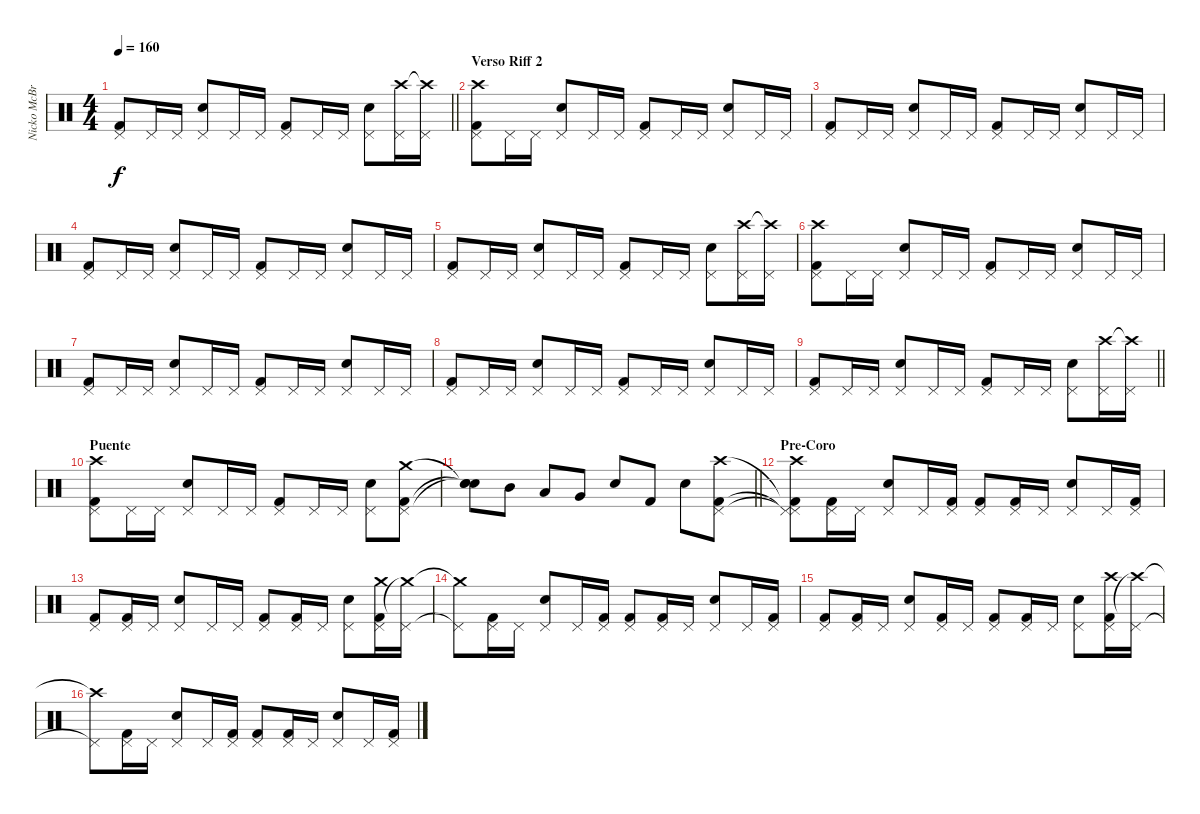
\track ("Nicko McBrain" "Nicko McBr") {instrument percussion}
\staff {score}
\articulation defaults
\ts (4 4)
\tempo 160
\clef neutral
\barLineRight lightlight
\ks c
("Kick (hit) 2" "Pedal Hi-Hat (hit)").8{dy f} "Pedal Hi-Hat (hit)".16 "Pedal Hi-Hat (hit)".16 ("Snare (hit) 2" "Pedal Hi-Hat (hit)").8 "Pedal Hi-Hat (hit)".16 "Pedal Hi-Hat (hit)".16 ("Kick (hit) 2" "Pedal Hi-Hat (hit)").8 "Pedal Hi-Hat (hit)".16 "Pedal Hi-Hat (hit)".16 ("Snare (hit) 2" "Pedal Hi-Hat (hit)").8 ("Pedal Hi-Hat (hit)" "Crash high (hit)").16 ("Pedal Hi-Hat (hit)" "Crash high (hit)"{t}).16 |
\section ("" "Verso Riff 2")
("Kick (hit) 2" "Pedal Hi-Hat (hit)" "Crash high (hit)").8 "Pedal Hi-Hat (hit)".16 "Pedal Hi-Hat (hit)".16 ("Snare (hit) 2" "Pedal Hi-Hat (hit)").8 "Pedal Hi-Hat (hit)".16 "Pedal Hi-Hat (hit)".16 ("Kick (hit) 2" "Pedal Hi-Hat (hit)").8 "Pedal Hi-Hat (hit)".16 "Pedal Hi-Hat (hit)".16 ("Snare (hit) 2" "Pedal Hi-Hat (hit)").8 "Pedal Hi-Hat (hit)".16 "Pedal Hi-Hat (hit)".16 |
("Kick (hit) 2" "Pedal Hi-Hat (hit)").8 "Pedal Hi-Hat (hit)".16 "Pedal Hi-Hat (hit)".16 ("Snare (hit) 2" "Pedal Hi-Hat (hit)").8 "Pedal Hi-Hat (hit)".16 "Pedal Hi-Hat (hit)".16 ("Kick (hit) 2" "Pedal Hi-Hat (hit)").8 "Pedal Hi-Hat (hit)".16 "Pedal Hi-Hat (hit)".16 ("Snare (hit) 2" "Pedal Hi-Hat (hit)").8 "Pedal Hi-Hat (hit)".16 "Pedal Hi-Hat (hit)".16 |
("Kick (hit) 2" "Pedal Hi-Hat (hit)").8 "Pedal Hi-Hat (hit)".16 "Pedal Hi-Hat (hit)".16 ("Snare (hit) 2" "Pedal Hi-Hat (hit)").8 "Pedal Hi-Hat (hit)".16 "Pedal Hi-Hat (hit)".16 ("Kick (hit) 2" "Pedal Hi-Hat (hit)").8 "Pedal Hi-Hat (hit)".16 "Pedal Hi-Hat (hit)".16 ("Snare (hit) 2" "Pedal Hi-Hat (hit)").8 "Pedal Hi-Hat (hit)".16 "Pedal Hi-Hat (hit)".16 |
("Kick (hit) 2" "Pedal Hi-Hat (hit)").8 "Pedal Hi-Hat (hit)".16 "Pedal Hi-Hat (hit)".16 ("Snare (hit) 2" "Pedal Hi-Hat (hit)").8 "Pedal Hi-Hat (hit)".16 "Pedal Hi-Hat (hit)".16 ("Kick (hit) 2" "Pedal Hi-Hat (hit)").8 "Pedal Hi-Hat (hit)".16 "Pedal Hi-Hat (hit)".16 ("Snare (hit) 2" "Pedal Hi-Hat (hit)").8 ("Pedal Hi-Hat (hit)" "Crash high (hit)").16 ("Pedal Hi-Hat (hit)" "Crash high (hit)"{t}).16 |
("Kick (hit) 2" "Pedal Hi-Hat (hit)" "Crash high (hit)").8 "Pedal Hi-Hat (hit)".16 "Pedal Hi-Hat (hit)".16 ("Snare (hit) 2" "Pedal Hi-Hat (hit)").8 "Pedal Hi-Hat (hit)".16 "Pedal Hi-Hat (hit)".16 ("Kick (hit) 2" "Pedal Hi-Hat (hit)").8 "Pedal Hi-Hat (hit)".16 "Pedal Hi-Hat (hit)".16 ("Snare (hit) 2" "Pedal Hi-Hat (hit)").8 "Pedal Hi-Hat (hit)".16 "Pedal Hi-Hat (hit)".16 |
("Kick (hit) 2" "Pedal Hi-Hat (hit)").8 "Pedal Hi-Hat (hit)".16 "Pedal Hi-Hat (hit)".16 ("Snare (hit) 2" "Pedal Hi-Hat (hit)").8 "Pedal Hi-Hat (hit)".16 "Pedal Hi-Hat (hit)".16 ("Kick (hit) 2" "Pedal Hi-Hat (hit)").8 "Pedal Hi-Hat (hit)".16 "Pedal Hi-Hat (hit)".16 ("Snare (hit) 2" "Pedal Hi-Hat (hit)").8 "Pedal Hi-Hat (hit)".16 "Pedal Hi-Hat (hit)".16 |
("Kick (hit) 2" "Pedal Hi-Hat (hit)").8 "Pedal Hi-Hat (hit)".16 "Pedal Hi-Hat (hit)".16 ("Snare (hit) 2" "Pedal Hi-Hat (hit)").8 "Pedal Hi-Hat (hit)".16 "Pedal Hi-Hat (hit)".16 ("Kick (hit) 2" "Pedal Hi-Hat (hit)").8 "Pedal Hi-Hat (hit)".16 "Pedal Hi-Hat (hit)".16 ("Snare (hit) 2" "Pedal Hi-Hat (hit)").8 "Pedal Hi-Hat (hit)".16 "Pedal Hi-Hat (hit)".16 |
\barLineRight lightlight
("Kick (hit) 2" "Pedal Hi-Hat (hit)").8 "Pedal Hi-Hat (hit)".16 "Pedal Hi-Hat (hit)".16 ("Snare (hit) 2" "Pedal Hi-Hat (hit)").8 "Pedal Hi-Hat (hit)".16 "Pedal Hi-Hat (hit)".16 ("Kick (hit) 2" "Pedal Hi-Hat (hit)").8 "Pedal Hi-Hat (hit)".16 "Pedal Hi-Hat (hit)".16 ("Snare (hit) 2" "Pedal Hi-Hat (hit)").8 ("Pedal Hi-Hat (hit)" "Crash high (hit)").16 ("Pedal Hi-Hat (hit)" "Crash high (hit)"{t}).16 |
\section ("" "Puente")
("Kick (hit) 2" "Pedal Hi-Hat (hit)" "Crash high (hit)").8 "Pedal Hi-Hat (hit)".16 "Pedal Hi-Hat (hit)".16 ("Snare (hit) 2" "Pedal Hi-Hat (hit)").8 "Pedal Hi-Hat (hit)".16 "Pedal Hi-Hat (hit)".16 ("Kick (hit) 2" "Pedal Hi-Hat (hit)").8 "Pedal Hi-Hat (hit)".16 "Pedal Hi-Hat (hit)".16 ("Snare (hit) 2" "Pedal Hi-Hat (hit)").8 ("Kick (hit) 2" "Pedal Hi-Hat (hit)" "Crash medium (hit)").8 |
\barLineRight lightlight
("Snare (hit)"{t} "Snare (hit)"{t} "Snare (hit)"{t}).8 "Mid Tom (hit)".8 "Low Tom (hit)".8 "Very Low Tom (hit)".8 "Snare (hit) 2".8 "Kick (hit) 2".8 "Snare (hit) 2".8 ("Pedal Hi-Hat (hit)" "Kick (hit) 2" "Crash high (hit)").8 |
\section ("" "Pre-Coro")
("Pedal Hi-Hat (hit)"{t} "Pedal Hi-Hat (hit)"{t} "Kick (hit) 2"{t} "Crash high (hit)").8 ("Pedal Hi-Hat (hit)" "Kick (hit) 2").16 "Pedal Hi-Hat (hit)".16 ("Pedal Hi-Hat (hit)" "Snare (hit) 2").8 "Pedal Hi-Hat (hit)".16 ("Pedal Hi-Hat (hit)" "Kick (hit) 2").16 ("Pedal Hi-Hat (hit)" "Kick (hit) 2").8 ("Pedal Hi-Hat (hit)" "Kick (hit) 2").16 "Pedal Hi-Hat (hit)".16 ("Pedal Hi-Hat (hit)" "Snare (hit) 2").8 "Pedal Hi-Hat (hit)".16 ("Pedal Hi-Hat (hit)" "Kick (hit) 2").16 |
("Pedal Hi-Hat (hit)" "Kick (hit) 2").8 ("Pedal Hi-Hat (hit)" "Kick (hit) 2").16 "Pedal Hi-Hat (hit)".16 ("Pedal Hi-Hat (hit)" "Snare (hit) 2").8 "Pedal Hi-Hat (hit)".16 "Pedal Hi-Hat (hit)".16 ("Pedal Hi-Hat (hit)" "Kick (hit) 2").8 ("Pedal Hi-Hat (hit)" "Kick (hit) 2").16 "Pedal Hi-Hat (hit)".16 ("Pedal Hi-Hat (hit)" "Snare (hit) 2").8 ("Pedal Hi-Hat (hit)" "Kick (hit) 2" "Crash medium (hit)").16 ("Pedal Hi-Hat (hit)" "Crash medium (hit)"{t}).16 |
("Pedal Hi-Hat (hit)"{t} "Crash medium (hit)"{t}).8 ("Pedal Hi-Hat (hit)" "Kick (hit) 2").16 "Pedal Hi-Hat (hit)".16 ("Pedal Hi-Hat (hit)" "Snare (hit) 2").8 "Pedal Hi-Hat (hit)".16 ("Pedal Hi-Hat (hit)" "Kick (hit) 2").16 ("Pedal Hi-Hat (hit)" "Kick (hit) 2").8 ("Pedal Hi-Hat (hit)" "Kick (hit) 2").16 "Pedal Hi-Hat (hit)".16 ("Pedal Hi-Hat (hit)" "Snare (hit) 2").8 "Pedal Hi-Hat (hit)".16 ("Pedal Hi-Hat (hit)" "Kick (hit) 2").16 |
("Pedal Hi-Hat (hit)" "Kick (hit) 2").8 ("Pedal Hi-Hat (hit)" "Kick (hit) 2").16 "Pedal Hi-Hat (hit)".16 ("Pedal Hi-Hat (hit)" "Snare (hit) 2").8 ("Pedal Hi-Hat (hit)" "Kick (hit) 2").16 "Pedal Hi-Hat (hit)".16 ("Pedal Hi-Hat (hit)" "Kick (hit) 2").8 ("Pedal Hi-Hat (hit)" "Kick (hit) 2").16 "Pedal Hi-Hat (hit)".16 ("Pedal Hi-Hat (hit)" "Snare (hit) 2").8 ("Pedal Hi-Hat (hit)" "Kick (hit) 2" "Crash high (hit)").16 ("Pedal Hi-Hat (hit)" "Crash high (hit)"{t}).16 |
("Pedal Hi-Hat (hit)"{t} "Crash high (hit)"{t}).8 ("Pedal Hi-Hat (hit)" "Kick (hit) 2").16 "Pedal Hi-Hat (hit)".16 ("Pedal Hi-Hat (hit)" "Snare (hit) 2").8 "Pedal Hi-Hat (hit)".16 ("Pedal Hi-Hat (hit)" "Kick (hit) 2").16 ("Pedal Hi-Hat (hit)" "Kick (hit) 2").8 ("Pedal Hi-Hat (hit)" "Kick (hit) 2").16 "Pedal Hi-Hat (hit)".16 ("Pedal Hi-Hat (hit)" "Snare (hit) 2").8 "Pedal Hi-Hat (hit)".16 ("Pedal Hi-Hat (hit)" "Kick (hit) 2").16
